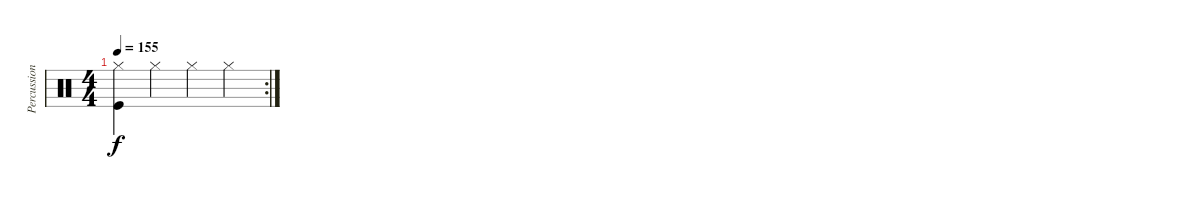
\track ("Percussions" "Percussion") {instrument percussion}
\staff {score}
\articulation defaults
\rc 2
\ts (4 4)
\tempo 155
\clef neutral
\ks c
("Hi-Hat (closed)" "Kick (hit)").4{dy f} "Hi-Hat (closed)".4 "Hi-Hat (closed)".4 "Hi-Hat (closed)".4
